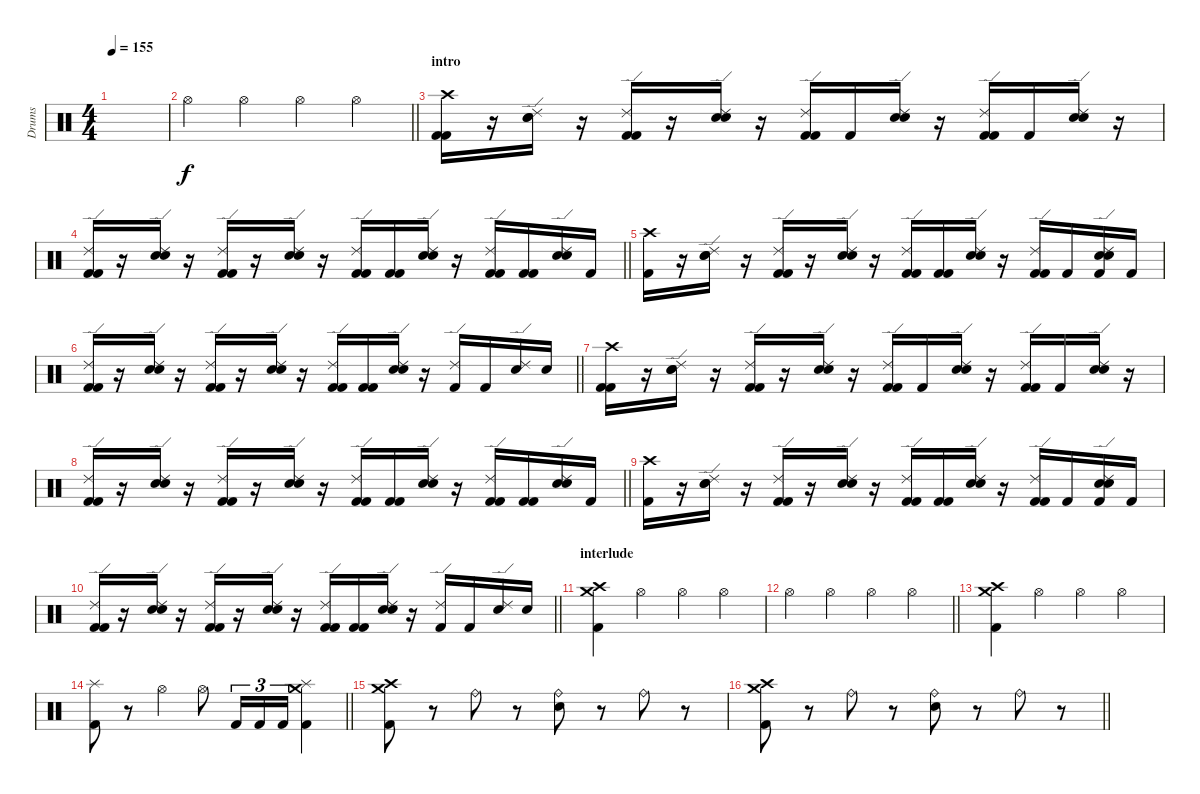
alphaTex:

\track ("Drums" "Drums") {instrument percussion}
\staff {score}
\articulation defaults
\ts (4 4)
\tempo 155
\clef neutral
\ks c
|
\barLineRight lightlight "Hi-Hat (open)".4 "Hi-Hat (open)".4 "Hi-Hat (open)".4 "Hi-Hat (open)".4
|
\section ("" "intro")
("Crash high (hit)" "Kick (hit) 2" "Kick (hit) 2").16 r.16 ("Ride (edge) 2" "Electric Snare (hit)" "Electric Snare (hit)").16 r.16 ("Ride (edge) 2" "Kick (hit) 2" "Kick (hit) 2").16 r.16 ("Ride (edge) 2" "Electric Snare (hit)" "Electric Snare (hit)").16 r.16 ("Ride (edge) 2" "Kick (hit) 2" "Kick (hit) 2").16 "Kick (hit) 2".16 ("Ride (edge) 2" "Electric Snare (hit)" "Electric Snare (hit)").16 r.16 ("Ride (edge) 2" "Kick (hit) 2" "Kick (hit) 2").16 "Kick (hit) 2".16 ("Ride (edge) 2" "Electric Snare (hit)" "Electric Snare (hit)").16 r.16 |
\barLineRight lightlight
("Ride (edge) 2" "Kick (hit) 2" "Kick (hit) 2").16 r.16 ("Ride (edge) 2" "Electric Snare (hit)" "Electric Snare (hit)").16 r.16 ("Ride (edge) 2" "Kick (hit) 2" "Kick (hit) 2").16 r.16 ("Ride (edge) 2" "Electric Snare (hit)" "Electric Snare (hit)").16 r.16 ("Ride (edge) 2" "Kick (hit) 2" "Kick (hit) 2").16 ("Kick (hit) 2" "Kick (hit) 2").16 ("Ride (edge) 2" "Electric Snare (hit)" "Electric Snare (hit)").16 r.16 ("Ride (edge) 2" "Kick (hit) 2" "Kick (hit) 2").16 ("Kick (hit) 2" "Kick (hit) 2").16 ("Ride (edge) 2" "Electric Snare (hit)" "Electric Snare (hit)").16 "Kick (hit) 2".16 |
("Crash high (hit)" "Kick (hit) 2").16 r.16 ("Ride (edge) 2" "Electric Snare (hit)" "Electric Snare (hit)").16 r.16 ("Ride (edge) 2" "Kick (hit) 2" "Kick (hit) 2").16 r.16 ("Ride (edge) 2" "Electric Snare (hit)" "Electric Snare (hit)").16 r.16 ("Ride (edge) 2" "Kick (hit) 2" "Kick (hit) 2").16 ("Kick (hit) 2" "Kick (hit) 2").16 ("Ride (edge) 2" "Electric Snare (hit)" "Electric Snare (hit)").16 r.16 ("Ride (edge) 2" "Kick (hit) 2" "Kick (hit) 2").16 "Kick (hit) 2".16 ("Ride (edge) 2" "Kick (hit) 2" "Electric Snare (hit)" "Electric Snare (hit)").16 "Kick (hit) 2".16 |
\barLineRight lightlight
("Ride (edge) 2" "Kick (hit) 2" "Kick (hit) 2").16 r.16 ("Ride (edge) 2" "Electric Snare (hit)" "Electric Snare (hit)").16 r.16 ("Ride (edge) 2" "Kick (hit) 2" "Kick (hit) 2").16 r.16 ("Ride (edge) 2" "Electric Snare (hit)" "Electric Snare (hit)").16 r.16 ("Ride (edge) 2" "Kick (hit) 2" "Kick (hit) 2").16 ("Kick (hit) 2" "Kick (hit) 2").16 ("Ride (edge) 2" "Electric Snare (hit)" "Electric Snare (hit)").16 r.16 ("Ride (edge) 2" "Kick (hit) 2").16 "Kick (hit) 2".16 ("Ride (edge) 2" "Electric Snare (hit)").16 "Electric Snare (hit)".16 |
("Crash high (hit)" "Kick (hit) 2" "Kick (hit) 2").16 r.16 ("Ride (edge) 2" "Electric Snare (hit)" "Electric Snare (hit)").16 r.16 ("Ride (edge) 2" "Kick (hit) 2" "Kick (hit) 2").16 r.16 ("Ride (edge) 2" "Electric Snare (hit)" "Electric Snare (hit)").16 r.16 ("Ride (edge) 2" "Kick (hit) 2" "Kick (hit) 2").16 "Kick (hit) 2".16 ("Ride (edge) 2" "Electric Snare (hit)" "Electric Snare (hit)").16 r.16 ("Ride (edge) 2" "Kick (hit) 2" "Kick (hit) 2").16 "Kick (hit) 2".16 ("Ride (edge) 2" "Electric Snare (hit)" "Electric Snare (hit)").16 r.16 |
\barLineRight lightlight
("Ride (edge) 2" "Kick (hit) 2" "Kick (hit) 2").16 r.16 ("Ride (edge) 2" "Electric Snare (hit)" "Electric Snare (hit)").16 r.16 ("Ride (edge) 2" "Kick (hit) 2" "Kick (hit) 2").16 r.16 ("Ride (edge) 2" "Electric Snare (hit)" "Electric Snare (hit)").16 r.16 ("Ride (edge) 2" "Kick (hit) 2" "Kick (hit) 2").16 ("Kick (hit) 2" "Kick (hit) 2").16 ("Ride (edge) 2" "Electric Snare (hit)" "Electric Snare (hit)").16 r.16 ("Ride (edge) 2" "Kick (hit) 2" "Kick (hit) 2").16 ("Kick (hit) 2" "Kick (hit) 2").16 ("Ride (edge) 2" "Electric Snare (hit)" "Electric Snare (hit)").16 "Kick (hit) 2".16 |
("Crash high (hit)" "Kick (hit) 2").16 r.16 ("Ride (edge) 2" "Electric Snare (hit)" "Electric Snare (hit)").16 r.16 ("Ride (edge) 2" "Kick (hit) 2" "Kick (hit) 2").16 r.16 ("Ride (edge) 2" "Electric Snare (hit)" "Electric Snare (hit)").16 r.16 ("Ride (edge) 2" "Kick (hit) 2" "Kick (hit) 2").16 ("Kick (hit) 2" "Kick (hit) 2").16 ("Ride (edge) 2" "Electric Snare (hit)" "Electric Snare (hit)").16 r.16 ("Ride (edge) 2" "Kick (hit) 2" "Kick (hit) 2").16 "Kick (hit) 2".16 ("Ride (edge) 2" "Kick (hit) 2" "Electric Snare (hit)" "Electric Snare (hit)").16 "Kick (hit) 2".16 |
\barLineRight lightlight
("Ride (edge) 2" "Kick (hit) 2" "Kick (hit) 2").16 r.16 ("Ride (edge) 2" "Electric Snare (hit)" "Electric Snare (hit)").16 r.16 ("Ride (edge) 2" "Kick (hit) 2" "Kick (hit) 2").16 r.16 ("Ride (edge) 2" "Electric Snare (hit)" "Electric Snare (hit)").16 r.16 ("Ride (edge) 2" "Kick (hit) 2" "Kick (hit) 2").16 ("Kick (hit) 2" "Kick (hit) 2").16 ("Ride (edge) 2" "Electric Snare (hit)" "Electric Snare (hit)").16 r.16 ("Ride (edge) 2" "Kick (hit) 2").16 "Kick (hit) 2".16 ("Ride (edge) 2" "Electric Snare (hit)").16 "Electric Snare (hit)".16 |
\section ("" "interlude")
("Crash medium (hit)" "Crash high (hit)" "Kick (hit) 2").4 "Hi-Hat (open)".4 "Hi-Hat (open)".4 "Hi-Hat (open)".4 |
\barLineRight lightlight "Hi-Hat (open)".4 "Hi-Hat (open)".4 "Hi-Hat (open)".4 "Hi-Hat (open)".4
|
("Crash medium (hit)" "Crash high (hit)" "Kick (hit) 2").4 "Hi-Hat (open)".4 "Hi-Hat (open)".4 "Hi-Hat (open)".4 |
\barLineRight lightlight
("Splash (hit)" "Kick (hit) 2").8 r.8 "Hi-Hat (open)".4 "Hi-Hat (open)".8 "Kick (hit) 2".16{tu (3 2)} "Kick (hit) 2".16{tu (3 2)} "Kick (hit) 2".16{tu (3 2)} ("Kick (hit) 2" "Crash medium (hit)" "Splash (hit)").4 |
("Crash medium (hit)" "Crash high (hit)" "Kick (hit) 2").8 r.8 "Ride (bell)".8 r.8 ("Ride (bell)" "Electric Snare (hit)").8 r.8 "Ride (bell)".8 r.8 |
\barLineRight lightlight
("Crash medium (hit)" "Crash high (hit)" "Kick (hit) 2").8 r.8 "Ride (bell)".8 r.8 ("Ride (bell)" "Electric Snare (hit)").8 r.8 "Ride (bell)".8 r.8
